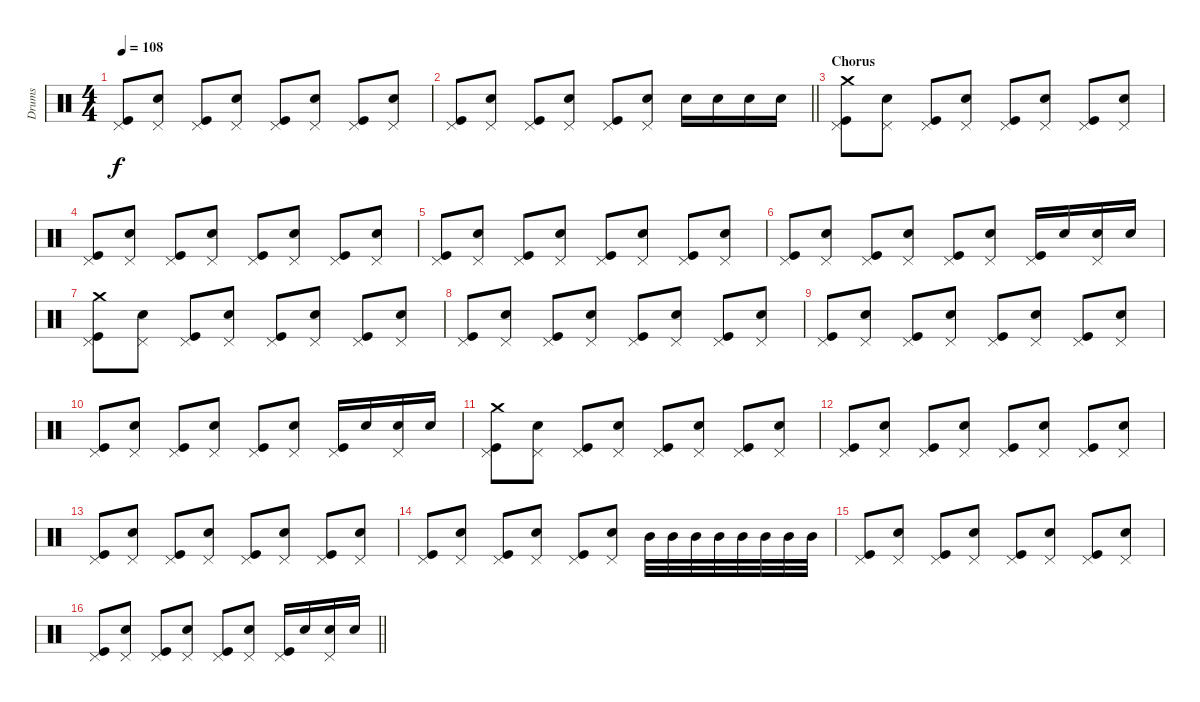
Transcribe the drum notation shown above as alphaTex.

\track ("Drums" "Drums") {instrument percussion}
\staff {score}
\articulation defaults
\ts (4 4)
\tempo 108
\clef neutral
\ks c
("Pedal Hi-Hat (hit)" "Kick (hit)").8{dy f} ("Pedal Hi-Hat (hit)" "Electric Snare (hit)").8 ("Pedal Hi-Hat (hit)" "Kick (hit)").8 ("Pedal Hi-Hat (hit)" "Electric Snare (hit)").8 ("Pedal Hi-Hat (hit)" "Kick (hit)").8 ("Pedal Hi-Hat (hit)" "Electric Snare (hit)").8 ("Pedal Hi-Hat (hit)" "Kick (hit)").8 ("Pedal Hi-Hat (hit)" "Electric Snare (hit)").8 |
\barLineRight lightlight
("Pedal Hi-Hat (hit)" "Kick (hit)").8 ("Pedal Hi-Hat (hit)" "Electric Snare (hit)").8 ("Pedal Hi-Hat (hit)" "Kick (hit)").8 ("Pedal Hi-Hat (hit)" "Electric Snare (hit)").8 ("Pedal Hi-Hat (hit)" "Kick (hit)").8 ("Pedal Hi-Hat (hit)" "Electric Snare (hit)").8 "Electric Snare (hit)".16 "Electric Snare (hit)".16 "Electric Snare (hit)".16 "Electric Snare (hit)".16 |
\section ("" "Chorus")
("Pedal Hi-Hat (hit)" "Crash medium (hit)" "Kick (hit)").8 ("Pedal Hi-Hat (hit)" "Electric Snare (hit)").8 ("Pedal Hi-Hat (hit)" "Kick (hit)").8 ("Pedal Hi-Hat (hit)" "Electric Snare (hit)").8 ("Pedal Hi-Hat (hit)" "Kick (hit)").8 ("Pedal Hi-Hat (hit)" "Electric Snare (hit)").8 ("Pedal Hi-Hat (hit)" "Kick (hit)").8 ("Pedal Hi-Hat (hit)" "Electric Snare (hit)").8 |
("Pedal Hi-Hat (hit)" "Kick (hit)").8 ("Pedal Hi-Hat (hit)" "Electric Snare (hit)").8 ("Pedal Hi-Hat (hit)" "Kick (hit)").8 ("Pedal Hi-Hat (hit)" "Electric Snare (hit)").8 ("Pedal Hi-Hat (hit)" "Kick (hit)").8 ("Pedal Hi-Hat (hit)" "Electric Snare (hit)").8 ("Pedal Hi-Hat (hit)" "Kick (hit)").8 ("Pedal Hi-Hat (hit)" "Electric Snare (hit)").8 |
("Pedal Hi-Hat (hit)" "Kick (hit)").8 ("Pedal Hi-Hat (hit)" "Electric Snare (hit)").8 ("Pedal Hi-Hat (hit)" "Kick (hit)").8 ("Pedal Hi-Hat (hit)" "Electric Snare (hit)").8 ("Pedal Hi-Hat (hit)" "Kick (hit)").8 ("Pedal Hi-Hat (hit)" "Electric Snare (hit)").8 ("Pedal Hi-Hat (hit)" "Kick (hit)").8 ("Pedal Hi-Hat (hit)" "Electric Snare (hit)").8 |
("Pedal Hi-Hat (hit)" "Kick (hit)").8 ("Pedal Hi-Hat (hit)" "Electric Snare (hit)").8 ("Pedal Hi-Hat (hit)" "Kick (hit)").8 ("Pedal Hi-Hat (hit)" "Electric Snare (hit)").8 ("Pedal Hi-Hat (hit)" "Kick (hit)").8 ("Pedal Hi-Hat (hit)" "Electric Snare (hit)").8 ("Pedal Hi-Hat (hit)" "Kick (hit)").16 "Electric Snare (hit)".16 ("Pedal Hi-Hat (hit)" "Electric Snare (hit)").16 "Electric Snare (hit)".16 |
("Pedal Hi-Hat (hit)" "Crash medium (hit)" "Kick (hit)").8 ("Pedal Hi-Hat (hit)" "Electric Snare (hit)").8 ("Pedal Hi-Hat (hit)" "Kick (hit)").8 ("Pedal Hi-Hat (hit)" "Electric Snare (hit)").8 ("Pedal Hi-Hat (hit)" "Kick (hit)").8 ("Pedal Hi-Hat (hit)" "Electric Snare (hit)").8 ("Pedal Hi-Hat (hit)" "Kick (hit)").8 ("Pedal Hi-Hat (hit)" "Electric Snare (hit)").8 |
("Pedal Hi-Hat (hit)" "Kick (hit)").8 ("Pedal Hi-Hat (hit)" "Electric Snare (hit)").8 ("Pedal Hi-Hat (hit)" "Kick (hit)").8 ("Pedal Hi-Hat (hit)" "Electric Snare (hit)").8 ("Pedal Hi-Hat (hit)" "Kick (hit)").8 ("Pedal Hi-Hat (hit)" "Electric Snare (hit)").8 ("Pedal Hi-Hat (hit)" "Kick (hit)").8 ("Pedal Hi-Hat (hit)" "Electric Snare (hit)").8 |
("Pedal Hi-Hat (hit)" "Kick (hit)").8 ("Pedal Hi-Hat (hit)" "Electric Snare (hit)").8 ("Pedal Hi-Hat (hit)" "Kick (hit)").8 ("Pedal Hi-Hat (hit)" "Electric Snare (hit)").8 ("Pedal Hi-Hat (hit)" "Kick (hit)").8 ("Pedal Hi-Hat (hit)" "Electric Snare (hit)").8 ("Pedal Hi-Hat (hit)" "Kick (hit)").8 ("Pedal Hi-Hat (hit)" "Electric Snare (hit)").8 |
("Pedal Hi-Hat (hit)" "Kick (hit)").8 ("Pedal Hi-Hat (hit)" "Electric Snare (hit)").8 ("Pedal Hi-Hat (hit)" "Kick (hit)").8 ("Pedal Hi-Hat (hit)" "Electric Snare (hit)").8 ("Pedal Hi-Hat (hit)" "Kick (hit)").8 ("Pedal Hi-Hat (hit)" "Electric Snare (hit)").8 ("Pedal Hi-Hat (hit)" "Kick (hit)").16 "Electric Snare (hit)".16 ("Pedal Hi-Hat (hit)" "Electric Snare (hit)").16 "Electric Snare (hit)".16 |
("Pedal Hi-Hat (hit)" "Crash medium (hit)" "Kick (hit)").8 ("Pedal Hi-Hat (hit)" "Electric Snare (hit)").8 ("Pedal Hi-Hat (hit)" "Kick (hit)").8 ("Pedal Hi-Hat (hit)" "Electric Snare (hit)").8 ("Pedal Hi-Hat (hit)" "Kick (hit)").8 ("Pedal Hi-Hat (hit)" "Electric Snare (hit)").8 ("Pedal Hi-Hat (hit)" "Kick (hit)").8 ("Pedal Hi-Hat (hit)" "Electric Snare (hit)").8 |
("Pedal Hi-Hat (hit)" "Kick (hit)").8 ("Pedal Hi-Hat (hit)" "Electric Snare (hit)").8 ("Pedal Hi-Hat (hit)" "Kick (hit)").8 ("Pedal Hi-Hat (hit)" "Electric Snare (hit)").8 ("Pedal Hi-Hat (hit)" "Kick (hit)").8 ("Pedal Hi-Hat (hit)" "Electric Snare (hit)").8 ("Pedal Hi-Hat (hit)" "Kick (hit)").8 ("Pedal Hi-Hat (hit)" "Electric Snare (hit)").8 |
("Pedal Hi-Hat (hit)" "Kick (hit)").8 ("Pedal Hi-Hat (hit)" "Electric Snare (hit)").8 ("Pedal Hi-Hat (hit)" "Kick (hit)").8 ("Pedal Hi-Hat (hit)" "Electric Snare (hit)").8 ("Pedal Hi-Hat (hit)" "Kick (hit)").8 ("Pedal Hi-Hat (hit)" "Electric Snare (hit)").8 ("Pedal Hi-Hat (hit)" "Kick (hit)").8 ("Pedal Hi-Hat (hit)" "Electric Snare (hit)").8 |
("Pedal Hi-Hat (hit)" "Kick (hit)").8 ("Pedal Hi-Hat (hit)" "Electric Snare (hit)").8 ("Pedal Hi-Hat (hit)" "Kick (hit)").8 ("Pedal Hi-Hat (hit)" "Electric Snare (hit)").8 ("Pedal Hi-Hat (hit)" "Kick (hit)").8 ("Pedal Hi-Hat (hit)" "Electric Snare (hit)").8 "Mid Tom (hit)".32 "Mid Tom (hit)".32 "Mid Tom (hit)".32 "Mid Tom (hit)".32 "Mid Tom (hit)".32 "Mid Tom (hit)".32 "Mid Tom (hit)".32 "Mid Tom (hit)".32 |
("Pedal Hi-Hat (hit)" "Kick (hit)").8 ("Pedal Hi-Hat (hit)" "Electric Snare (hit)").8 ("Pedal Hi-Hat (hit)" "Kick (hit)").8 ("Pedal Hi-Hat (hit)" "Electric Snare (hit)").8 ("Pedal Hi-Hat (hit)" "Kick (hit)").8 ("Pedal Hi-Hat (hit)" "Electric Snare (hit)").8 ("Pedal Hi-Hat (hit)" "Kick (hit)").8 ("Pedal Hi-Hat (hit)" "Electric Snare (hit)").8 |
\barLineRight lightlight
("Pedal Hi-Hat (hit)" "Kick (hit)").8 ("Pedal Hi-Hat (hit)" "Electric Snare (hit)").8 ("Pedal Hi-Hat (hit)" "Kick (hit)").8 ("Pedal Hi-Hat (hit)" "Electric Snare (hit)").8 ("Pedal Hi-Hat (hit)" "Kick (hit)").8 ("Pedal Hi-Hat (hit)" "Electric Snare (hit)").8 ("Pedal Hi-Hat (hit)" "Kick (hit)").16 "Electric Snare (hit)".16 ("Pedal Hi-Hat (hit)" "Electric Snare (hit)").16 "Electric Snare (hit)".16
